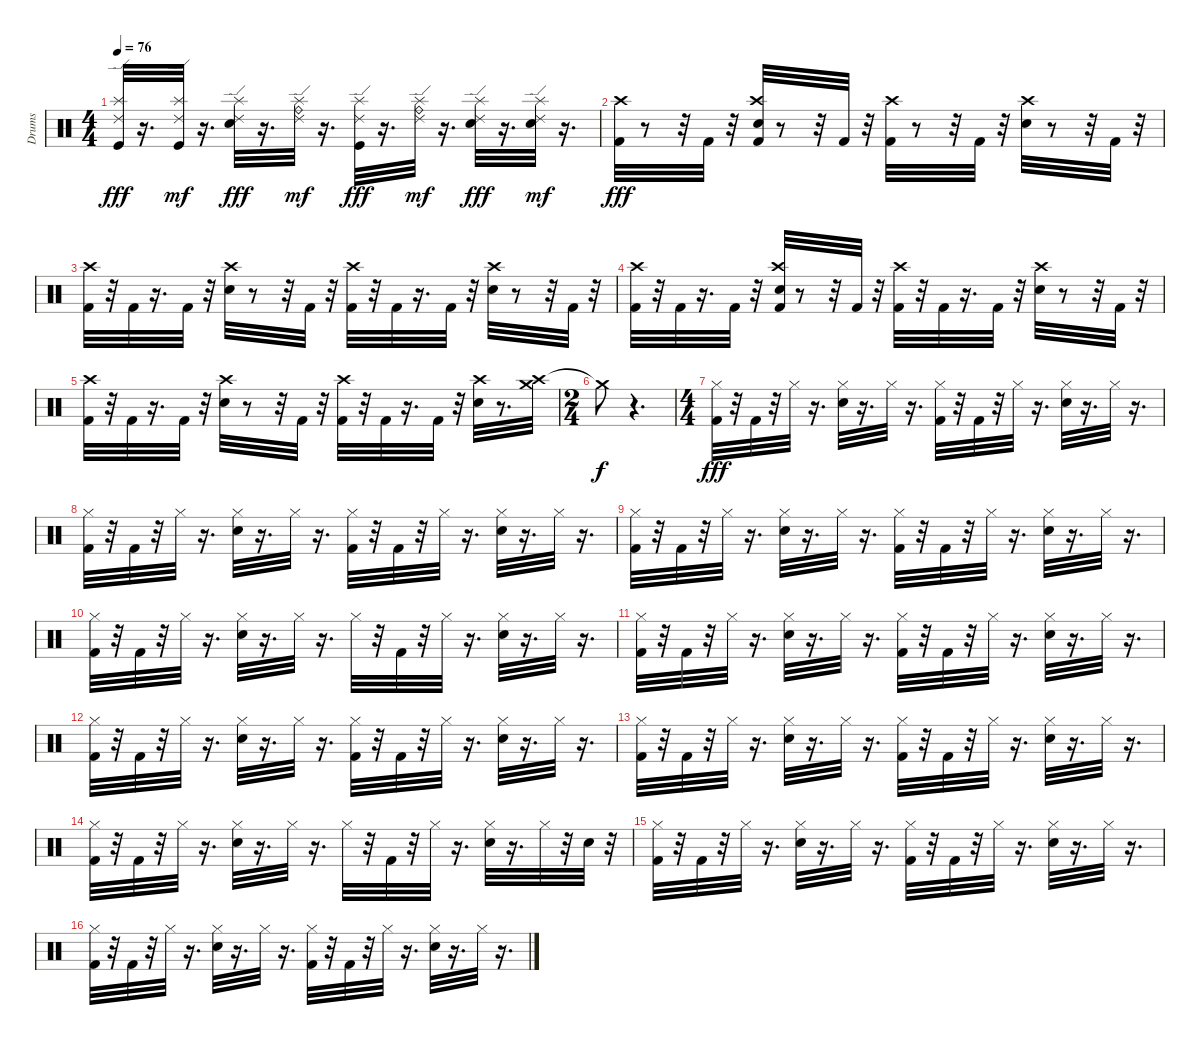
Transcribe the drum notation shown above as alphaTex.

\track ("Drums" "Drums") {instrument percussion}
\staff {score}
\articulation defaults
\ts (4 4)
\tempo 76
\clef neutral
\ks c
("Ride (edge) 2" "Splash (hit)" "Kick (hit)").32{dy fff} r.16{d} ("Kick (hit)" "Ride (edge) 2" "Splash (hit)").32{dy mf} r.16{d} ("Ride (edge) 2" "Splash (hit)" "Electric Snare (hit)").32{dy fff} r.16{d} ("Ride (bell)" "Ride (edge) 2" "Splash (hit)").32{dy mf} r.16{d} ("Ride (edge) 2" "Splash (hit)" "Kick (hit)").32{dy fff} r.16{d} ("Ride (bell)" "Ride (edge) 2" "Splash (hit)").32{dy mf} r.16{d} ("Ride (edge) 2" "Splash (hit)" "Electric Snare (hit)").32{dy fff} r.16{d} ("Electric Snare (hit)" "Ride (edge) 2" "Splash (hit)").32{dy mf} r.16{d} |
("Crash high (hit)" "Kick (hit) 2").32{dy fff} r.8 r.32 "Kick (hit) 2".32 r.32 ("Crash high (hit)" "Kick (hit) 2" "Electric Snare (hit)").32 r.8 r.32 "Kick (hit) 2".32 r.32 ("Crash high (hit)" "Kick (hit) 2").32 r.8 r.32 "Kick (hit) 2".32 r.32 ("Crash high (hit)" "Electric Snare (hit)").32 r.8 r.32 "Kick (hit) 2".32 r.32 |
("Crash high (hit)" "Kick (hit) 2").32 r.32 "Kick (hit) 2".32 r.16{d} "Kick (hit) 2".32 r.32 ("Crash high (hit)" "Electric Snare (hit)").32 r.8 r.32 "Kick (hit) 2".32 r.32 ("Crash high (hit)" "Kick (hit) 2").32 r.32 "Kick (hit) 2".32 r.16{d} "Kick (hit) 2".32 r.32 ("Crash high (hit)" "Electric Snare (hit)").32 r.8 r.32 "Kick (hit) 2".32 r.32 |
("Crash high (hit)" "Kick (hit) 2").32 r.32 "Kick (hit) 2".32 r.16{d} "Kick (hit) 2".32 r.32 ("Crash high (hit)" "Kick (hit) 2" "Electric Snare (hit)").32 r.8 r.32 "Kick (hit) 2".32 r.32 ("Crash high (hit)" "Kick (hit) 2").32 r.32 "Kick (hit) 2".32 r.16{d} "Kick (hit) 2".32 r.32 ("Crash high (hit)" "Electric Snare (hit)").32 r.8 r.32 "Kick (hit) 2".32 r.32 |
("Crash high (hit)" "Kick (hit) 2").32 r.32 "Kick (hit) 2".32 r.16{d} "Kick (hit) 2".32 r.32 ("Crash high (hit)" "Electric Snare (hit)").32 r.8 r.32 "Kick (hit) 2".32 r.32 ("Crash high (hit)" "Kick (hit) 2").32 r.32 "Kick (hit) 2".32 r.16{d} "Kick (hit) 2".32 r.32 ("Crash high (hit)" "Electric Snare (hit)").32 r.8{d} ("Crash high (hit)" "Crash medium (hit)").32 |
\ts (2 4)
"Crash medium (hit)"{t}.8{dy f} r.4{d} |
\ts (4 4)
("Hi-Hat (closed)" "Kick (hit) 2").32{dy fff} r.32 "Kick (hit) 2".32 r.32 "Hi-Hat (closed)".32 r.16{d} ("Hi-Hat (closed)" "Electric Snare (hit)").32 r.16{d} "Hi-Hat (closed)".32 r.16{d} ("Hi-Hat (closed)" "Kick (hit) 2").32 r.32 "Kick (hit) 2".32 r.32 "Hi-Hat (closed)".32 r.16{d} ("Hi-Hat (closed)" "Electric Snare (hit)").32 r.16{d} "Hi-Hat (closed)".32 r.16{d} |
("Kick (hit) 2" "Hi-Hat (closed)").32 r.32 "Kick (hit) 2".32 r.32 "Hi-Hat (closed)".32 r.16{d} ("Electric Snare (hit)" "Hi-Hat (closed)").32 r.16{d} "Hi-Hat (closed)".32 r.16{d} ("Kick (hit) 2" "Hi-Hat (closed)").32 r.32 "Kick (hit) 2".32 r.32 "Hi-Hat (closed)".32 r.16{d} ("Electric Snare (hit)" "Hi-Hat (closed)").32 r.16{d} "Hi-Hat (closed)".32 r.16{d} |
("Hi-Hat (closed)" "Kick (hit) 2").32 r.32 "Kick (hit) 2".32 r.32 "Hi-Hat (closed)".32 r.16{d} ("Hi-Hat (closed)" "Electric Snare (hit)").32 r.16{d} "Hi-Hat (closed)".32 r.16{d} ("Hi-Hat (closed)" "Kick (hit) 2").32 r.32 "Kick (hit) 2".32 r.32 "Hi-Hat (closed)".32 r.16{d} ("Hi-Hat (closed)" "Electric Snare (hit)").32 r.16{d} "Hi-Hat (closed)".32 r.16{d} |
("Kick (hit) 2" "Hi-Hat (closed)").32 r.32 "Kick (hit) 2".32 r.32 "Hi-Hat (closed)".32 r.16{d} ("Electric Snare (hit)" "Hi-Hat (closed)").32 r.16{d} "Hi-Hat (closed)".32 r.16{d} "Hi-Hat (closed)".32 r.32 "Kick (hit) 2".32 r.32 "Hi-Hat (closed)".32 r.16{d} ("Electric Snare (hit)" "Hi-Hat (closed)").32 r.16{d} "Hi-Hat (closed)".32 r.16{d} |
("Hi-Hat (closed)" "Kick (hit) 2").32 r.32 "Kick (hit) 2".32 r.32 "Hi-Hat (closed)".32 r.16{d} ("Hi-Hat (closed)" "Electric Snare (hit)").32 r.16{d} "Hi-Hat (closed)".32 r.16{d} ("Hi-Hat (closed)" "Kick (hit) 2").32 r.32 "Kick (hit) 2".32 r.32 "Hi-Hat (closed)".32 r.16{d} ("Hi-Hat (closed)" "Electric Snare (hit)").32 r.16{d} "Hi-Hat (closed)".32 r.16{d} |
("Kick (hit) 2" "Hi-Hat (closed)").32 r.32 "Kick (hit) 2".32 r.32 "Hi-Hat (closed)".32 r.16{d} ("Electric Snare (hit)" "Hi-Hat (closed)").32 r.16{d} "Hi-Hat (closed)".32 r.16{d} ("Kick (hit) 2" "Hi-Hat (closed)").32 r.32 "Kick (hit) 2".32 r.32 "Hi-Hat (closed)".32 r.16{d} ("Electric Snare (hit)" "Hi-Hat (closed)").32 r.16{d} "Hi-Hat (closed)".32 r.16{d} |
("Hi-Hat (closed)" "Kick (hit) 2").32 r.32 "Kick (hit) 2".32 r.32 "Hi-Hat (closed)".32 r.16{d} ("Hi-Hat (closed)" "Electric Snare (hit)").32 r.16{d} "Hi-Hat (closed)".32 r.16{d} ("Hi-Hat (closed)" "Kick (hit) 2").32 r.32 "Kick (hit) 2".32 r.32 "Hi-Hat (closed)".32 r.16{d} ("Hi-Hat (closed)" "Electric Snare (hit)").32 r.16{d} "Hi-Hat (closed)".32 r.16{d} |
("Kick (hit) 2" "Hi-Hat (closed)").32 r.32 "Kick (hit) 2".32 r.32 "Hi-Hat (closed)".32 r.16{d} ("Electric Snare (hit)" "Hi-Hat (closed)").32 r.16{d} "Hi-Hat (closed)".32 r.16{d} "Hi-Hat (closed)".32 r.32 "Kick (hit) 2".32 r.32 "Hi-Hat (closed)".32 r.16{d} ("Electric Snare (hit)" "Hi-Hat (closed)").32 r.16{d} "Hi-Hat (closed)".32 r.32 "Electric Snare (hit)".32 r.32 |
("Hi-Hat (closed)" "Kick (hit) 2").32 r.32 "Kick (hit) 2".32 r.32 "Hi-Hat (closed)".32 r.16{d} ("Hi-Hat (closed)" "Electric Snare (hit)").32 r.16{d} "Hi-Hat (closed)".32 r.16{d} ("Hi-Hat (closed)" "Kick (hit) 2").32 r.32 "Kick (hit) 2".32 r.32 "Hi-Hat (closed)".32 r.16{d} ("Hi-Hat (closed)" "Electric Snare (hit)").32 r.16{d} "Hi-Hat (closed)".32 r.16{d} |
("Kick (hit) 2" "Hi-Hat (closed)").32 r.32 "Kick (hit) 2".32 r.32 "Hi-Hat (closed)".32 r.16{d} ("Electric Snare (hit)" "Hi-Hat (closed)").32 r.16{d} "Hi-Hat (closed)".32 r.16{d} ("Kick (hit) 2" "Hi-Hat (closed)").32 r.32 "Kick (hit) 2".32 r.32 "Hi-Hat (closed)".32 r.16{d} ("Electric Snare (hit)" "Hi-Hat (closed)").32 r.16{d} "Hi-Hat (closed)".32 r.16{d}
